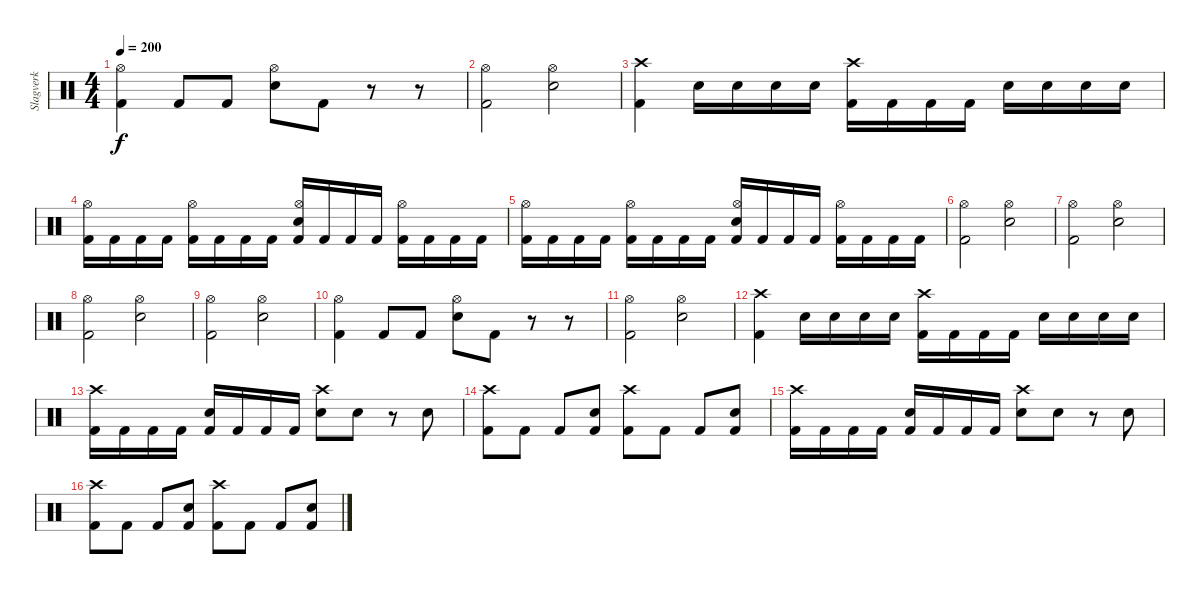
\track ("Slagverk" "Slagverk") {instrument percussion}
\staff {score}
\articulation defaults
\ts (4 4)
\tempo 200
\clef neutral
\ks c
("Kick (hit) 2" "Hi-Hat (open)").4{dy f} "Kick (hit) 2".8 "Kick (hit) 2".8 ("Snare (hit) 2" "Hi-Hat (open)").8 "Kick (hit) 2".8 r.8 r.8 |
("Hi-Hat (open)" "Kick (hit) 2").2 ("Snare (hit) 2" "Hi-Hat (open)").2 |
("Kick (hit) 2" "Crash high (hit)").4 "Snare (hit) 2".16 "Snare (hit) 2".16 "Snare (hit) 2".16 "Snare (hit) 2".16 ("Kick (hit) 2" "Crash high (hit)").16 "Kick (hit) 2".16 "Kick (hit) 2".16 "Kick (hit) 2".16 "Snare (hit) 2".16 "Snare (hit) 2".16 "Snare (hit) 2".16 "Snare (hit) 2".16 |
("Kick (hit) 2" "Hi-Hat (open)").16 "Kick (hit) 2".16 "Kick (hit) 2".16 "Kick (hit) 2".16 ("Kick (hit) 2" "Hi-Hat (open)").16 "Kick (hit) 2".16 "Kick (hit) 2".16 "Kick (hit) 2".16 ("Kick (hit) 2" "Hi-Hat (open)" "Snare (hit) 2").16 "Kick (hit) 2".16 "Kick (hit) 2".16 "Kick (hit) 2".16 ("Kick (hit) 2" "Hi-Hat (open)").16 "Kick (hit) 2".16 "Kick (hit) 2".16 "Kick (hit) 2".16 |
("Kick (hit) 2" "Hi-Hat (open)").16 "Kick (hit) 2".16 "Kick (hit) 2".16 "Kick (hit) 2".16 ("Kick (hit) 2" "Hi-Hat (open)").16 "Kick (hit) 2".16 "Kick (hit) 2".16 "Kick (hit) 2".16 ("Kick (hit) 2" "Hi-Hat (open)" "Snare (hit) 2").16 "Kick (hit) 2".16 "Kick (hit) 2".16 "Kick (hit) 2".16 ("Kick (hit) 2" "Hi-Hat (open)").16 "Kick (hit) 2".16 "Kick (hit) 2".16 "Kick (hit) 2".16 |
("Hi-Hat (open)" "Kick (hit) 2").2 ("Snare (hit) 2" "Hi-Hat (open)").2 |
("Hi-Hat (open)" "Kick (hit) 2").2 ("Snare (hit) 2" "Hi-Hat (open)").2 |
("Hi-Hat (open)" "Kick (hit) 2").2 ("Snare (hit) 2" "Hi-Hat (open)").2 |
("Hi-Hat (open)" "Kick (hit) 2").2 ("Snare (hit) 2" "Hi-Hat (open)").2 |
("Kick (hit) 2" "Hi-Hat (open)").4 "Kick (hit) 2".8 "Kick (hit) 2".8 ("Snare (hit) 2" "Hi-Hat (open)").8 "Kick (hit) 2".8 r.8 r.8 |
("Hi-Hat (open)" "Kick (hit) 2").2 ("Snare (hit) 2" "Hi-Hat (open)").2 |
("Kick (hit) 2" "Crash high (hit)").4 "Snare (hit) 2".16 "Snare (hit) 2".16 "Snare (hit) 2".16 "Snare (hit) 2".16 ("Kick (hit) 2" "Crash high (hit)").16 "Kick (hit) 2".16 "Kick (hit) 2".16 "Kick (hit) 2".16 "Snare (hit) 2".16 "Snare (hit) 2".16 "Snare (hit) 2".16 "Snare (hit) 2".16 |
("Crash high (hit)" "Kick (hit) 2").16 "Kick (hit) 2".16 "Kick (hit) 2".16 "Kick (hit) 2".16 ("Snare (hit) 2" "Kick (hit) 2").16 "Kick (hit) 2".16 "Kick (hit) 2".16 "Kick (hit) 2".16 ("Snare (hit) 2" "Crash high (hit)").8 "Snare (hit) 2".8 r.8 "Snare (hit) 2".8 |
("Kick (hit) 2" "Crash high (hit)").8 "Kick (hit) 2".8 "Kick (hit) 2".8 ("Kick (hit) 2" "Snare (hit) 2").8 ("Kick (hit) 2" "Crash high (hit)").8 "Kick (hit) 2".8 "Kick (hit) 2".8 ("Kick (hit) 2" "Snare (hit) 2").8 |
("Crash high (hit)" "Kick (hit) 2").16 "Kick (hit) 2".16 "Kick (hit) 2".16 "Kick (hit) 2".16 ("Snare (hit) 2" "Kick (hit) 2").16 "Kick (hit) 2".16 "Kick (hit) 2".16 "Kick (hit) 2".16 ("Snare (hit) 2" "Crash high (hit)").8 "Snare (hit) 2".8 r.8 "Snare (hit) 2".8 |
("Kick (hit) 2" "Crash high (hit)").8 "Kick (hit) 2".8 "Kick (hit) 2".8 ("Kick (hit) 2" "Snare (hit) 2").8 ("Kick (hit) 2" "Crash high (hit)").8 "Kick (hit) 2".8 "Kick (hit) 2".8 ("Kick (hit) 2" "Snare (hit) 2").8
